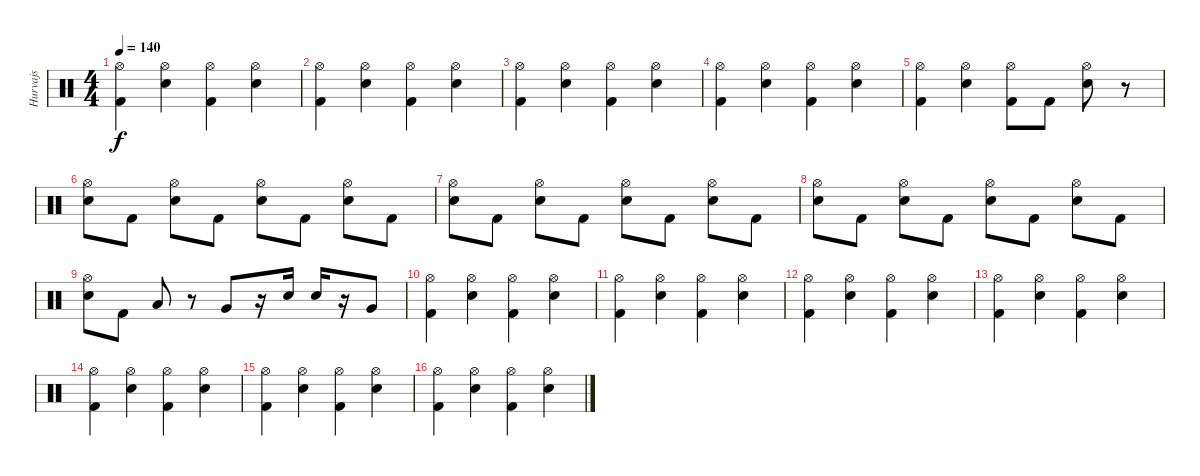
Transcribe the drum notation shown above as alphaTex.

\track ("Hurvajs" "Hurvajs") {instrument percussion}
\staff {score}
\articulation defaults
\ts (4 4)
\tempo 140
\clef neutral
\ks c
("Hi-Hat (open)" "Kick (hit) 2").4{dy f} ("Hi-Hat (open)" "Snare (hit) 2").4 ("Hi-Hat (open)" "Kick (hit) 2").4 ("Hi-Hat (open)" "Snare (hit) 2").4 |
("Hi-Hat (open)" "Kick (hit) 2").4 ("Hi-Hat (open)" "Snare (hit) 2").4 ("Hi-Hat (open)" "Kick (hit) 2").4 ("Hi-Hat (open)" "Snare (hit) 2").4 |
("Hi-Hat (open)" "Kick (hit) 2").4 ("Hi-Hat (open)" "Snare (hit) 2").4 ("Hi-Hat (open)" "Kick (hit) 2").4 ("Hi-Hat (open)" "Snare (hit) 2").4 |
("Hi-Hat (open)" "Kick (hit) 2").4 ("Hi-Hat (open)" "Snare (hit) 2").4 ("Hi-Hat (open)" "Kick (hit) 2").4 ("Hi-Hat (open)" "Snare (hit) 2").4 |
("Hi-Hat (open)" "Kick (hit) 2").4 ("Hi-Hat (open)" "Snare (hit) 2").4 ("Hi-Hat (open)" "Kick (hit) 2").8 "Kick (hit) 2".8 ("Hi-Hat (open)" "Snare (hit) 2").8 r.8 |
("Hi-Hat (open)" "Snare (hit) 2").8 "Kick (hit) 2".8 ("Hi-Hat (open)" "Snare (hit) 2").8 "Kick (hit) 2".8 ("Hi-Hat (open)" "Snare (hit) 2").8 "Kick (hit) 2".8 ("Hi-Hat (open)" "Snare (hit) 2").8 "Kick (hit) 2".8 |
("Hi-Hat (open)" "Snare (hit) 2").8 "Kick (hit) 2".8 ("Hi-Hat (open)" "Snare (hit) 2").8 "Kick (hit) 2".8 ("Hi-Hat (open)" "Snare (hit) 2").8 "Kick (hit) 2".8 ("Hi-Hat (open)" "Snare (hit) 2").8 "Kick (hit) 2".8 |
("Hi-Hat (open)" "Snare (hit) 2").8 "Kick (hit) 2".8 ("Hi-Hat (open)" "Snare (hit) 2").8 "Kick (hit) 2".8 ("Hi-Hat (open)" "Snare (hit) 2").8 "Kick (hit) 2".8 ("Hi-Hat (open)" "Snare (hit) 2").8 "Kick (hit) 2".8 |
("Hi-Hat (open)" "Snare (hit) 2").8 "Kick (hit) 2".8 "Low Tom (hit)".8 r.8 "Very Low Tom (hit)".8 r.16 "Snare (hit) 2".16 "Snare (hit) 2".16 r.16 "Very Low Tom (hit)".8 |
("Hi-Hat (open)" "Kick (hit) 2").4 ("Hi-Hat (open)" "Snare (hit) 2").4 ("Hi-Hat (open)" "Kick (hit) 2").4 ("Hi-Hat (open)" "Snare (hit) 2").4 |
("Hi-Hat (open)" "Kick (hit) 2").4 ("Hi-Hat (open)" "Snare (hit) 2").4 ("Hi-Hat (open)" "Kick (hit) 2").4 ("Hi-Hat (open)" "Snare (hit) 2").4 |
("Hi-Hat (open)" "Kick (hit) 2").4 ("Hi-Hat (open)" "Snare (hit) 2").4 ("Hi-Hat (open)" "Kick (hit) 2").4 ("Hi-Hat (open)" "Snare (hit) 2").4 |
("Hi-Hat (open)" "Kick (hit) 2").4 ("Hi-Hat (open)" "Snare (hit) 2").4 ("Hi-Hat (open)" "Kick (hit) 2").4 ("Hi-Hat (open)" "Snare (hit) 2").4 |
("Hi-Hat (open)" "Kick (hit) 2").4 ("Hi-Hat (open)" "Snare (hit) 2").4 ("Hi-Hat (open)" "Kick (hit) 2").4 ("Hi-Hat (open)" "Snare (hit) 2").4 |
("Hi-Hat (open)" "Kick (hit) 2").4 ("Hi-Hat (open)" "Snare (hit) 2").4 ("Hi-Hat (open)" "Kick (hit) 2").4 ("Hi-Hat (open)" "Snare (hit) 2").4 |
("Hi-Hat (open)" "Kick (hit) 2").4 ("Hi-Hat (open)" "Snare (hit) 2").4 ("Hi-Hat (open)" "Kick (hit) 2").4 ("Hi-Hat (open)" "Snare (hit) 2").4
